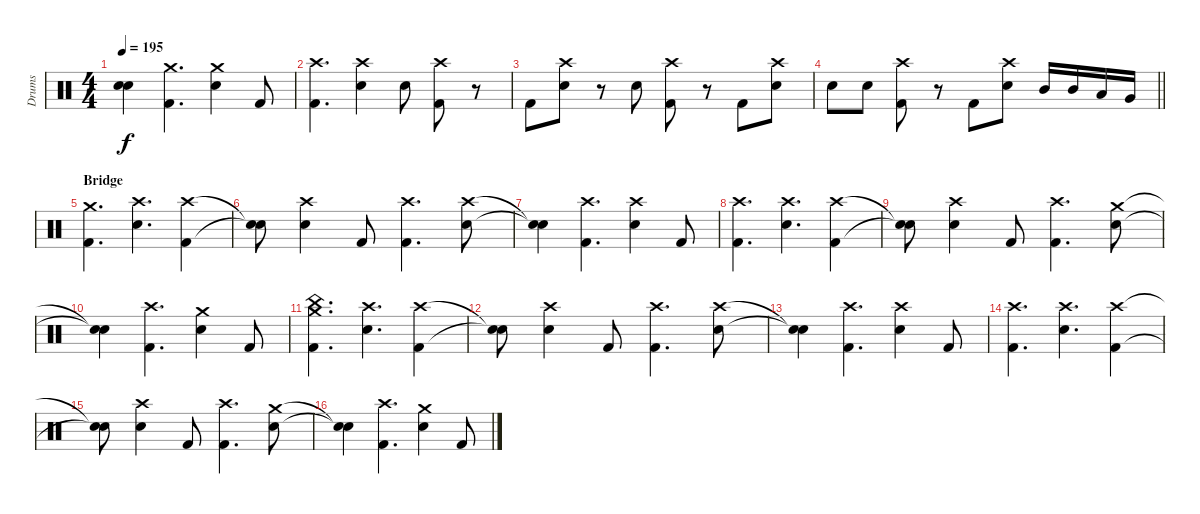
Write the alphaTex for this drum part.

\track ("Drums" "Drums") {instrument percussion}
\staff {score}
\articulation defaults
\ts (4 4)
\tempo 195
\clef neutral
\ks c
("Snare (hit)"{t} "Snare (hit)"{t}).4{dy f} ("Crash medium (hit)" "Kick (hit) 2").4{d} ("Crash medium (hit)" "Electric Snare (hit)").4 "Kick (hit) 2".8 |
("Crash high (hit)" "Kick (hit) 2").4{d} ("Crash high (hit)" "Electric Snare (hit)").4 "Electric Snare (hit)".8 ("Crash high (hit)" "Kick (hit) 2").8 r.8 |
"Kick (hit) 2".8 ("Crash high (hit)" "Electric Snare (hit)").8 r.8 "Electric Snare (hit)".8 ("Crash high (hit)" "Kick (hit) 2").8 r.8 "Kick (hit) 2".8 ("Crash high (hit)" "Electric Snare (hit)").8 |
\barLineRight lightlight "Electric Snare (hit)".8 "Electric Snare (hit)".8
("Crash high (hit)" "Kick (hit) 2").8 r.8 "Kick (hit) 2".8 ("Crash high (hit)" "Electric Snare (hit)").8 "Mid Tom (hit)".16 "Mid Tom (hit)".16 "Low Tom (hit)".16 "Very Low Tom (hit)".16 |
\section ("" "Bridge")
("Crash medium (hit)" "Kick (hit) 2").4{d} ("Crash high (hit)" "Electric Snare (hit)").4{d} ("Crash high (hit)" "Kick (hit) 2").4 |
("Snare (hit)"{t} "Snare (hit)"{t}).8 ("Crash high (hit)" "Electric Snare (hit)").4 "Kick (hit) 2".8 ("Crash high (hit)" "Kick (hit) 2").4{d} ("Crash high (hit)" "Electric Snare (hit)").8 |
("Snare (hit)"{t} "Snare (hit)"{t}).4 ("Crash high (hit)" "Kick (hit) 2").4{d} ("Crash high (hit)" "Electric Snare (hit)").4 "Kick (hit) 2".8 |
("Crash high (hit)" "Kick (hit) 2").4{d} ("Crash high (hit)" "Electric Snare (hit)").4{d} ("Crash high (hit)" "Kick (hit) 2").4 |
("Snare (hit)"{t} "Snare (hit)"{t}).8 ("Crash high (hit)" "Electric Snare (hit)").4 "Kick (hit) 2".8 ("Crash high (hit)" "Kick (hit) 2").4{d} ("Crash medium (hit)" "Electric Snare (hit)").8 |
("Snare (hit)"{t} "Snare (hit)"{t}).4 ("Crash high (hit)" "Kick (hit) 2").4{d} ("Crash medium (hit)" "Electric Snare (hit)").4 "Kick (hit) 2".8 |
("China (hit)" "Crash medium (hit)" "Kick (hit) 2").4{d} ("Crash high (hit)" "Electric Snare (hit)").4{d} ("Crash high (hit)" "Kick (hit) 2").4 |
("Snare (hit)"{t} "Snare (hit)"{t}).8 ("Crash high (hit)" "Electric Snare (hit)").4 "Kick (hit) 2".8 ("Crash high (hit)" "Kick (hit) 2").4{d} ("Crash high (hit)" "Electric Snare (hit)").8 |
("Snare (hit)"{t} "Snare (hit)"{t}).4 ("Crash high (hit)" "Kick (hit) 2").4{d} ("Crash high (hit)" "Electric Snare (hit)").4 "Kick (hit) 2".8 |
("Crash high (hit)" "Kick (hit) 2").4{d} ("Crash high (hit)" "Electric Snare (hit)").4{d} ("Crash high (hit)" "Kick (hit) 2").4 |
("Snare (hit)"{t} "Snare (hit)"{t}).8 ("Crash high (hit)" "Electric Snare (hit)").4 "Kick (hit) 2".8 ("Crash high (hit)" "Kick (hit) 2").4{d} ("Crash medium (hit)" "Electric Snare (hit)").8 |
("Snare (hit)"{t} "Snare (hit)"{t}).4 ("Crash high (hit)" "Kick (hit) 2").4{d} ("Crash medium (hit)" "Electric Snare (hit)").4 "Kick (hit) 2".8
